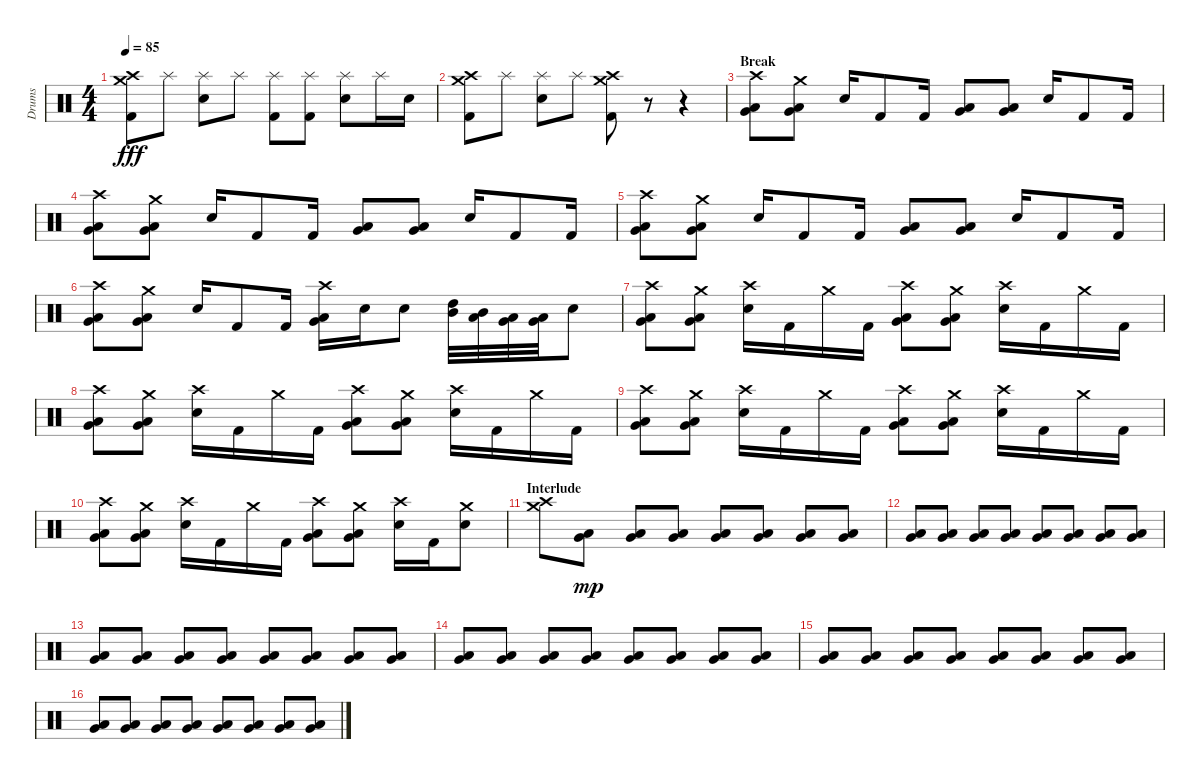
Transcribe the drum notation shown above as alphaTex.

\track ("Drums" "Drums") {instrument percussion}
\staff {score}
\articulation defaults
\ts (4 4)
\tempo 85
\clef neutral
\ks c
("Crash high (hit)" "Crash medium (hit)" "Kick (hit) 2").8{dy fff} "Splash (hit)".8 ("Splash (hit)" "Electric Snare (hit)").8 "Splash (hit)".8 ("Splash (hit)" "Kick (hit) 2").8 ("Splash (hit)" "Kick (hit) 2").8 ("Splash (hit)" "Electric Snare (hit)").8 "Splash (hit)".16 "Electric Snare (hit)".16 |
("Crash high (hit)" "Crash medium (hit)" "Kick (hit) 2").8 "Splash (hit)".8 ("Splash (hit)" "Electric Snare (hit)").8 "Splash (hit)".8 ("Crash high (hit)" "Crash medium (hit)" "Kick (hit) 2").8 r.8 r.4 |
\section ("" "Break")
("Crash high (hit)" "Very Low Tom (hit)" "Low Floor Tom (hit)").8 ("Crash medium (hit)" "Very Low Tom (hit)" "Low Floor Tom (hit)").8 "Electric Snare (hit)".16 "Kick (hit) 2".8 "Kick (hit) 2".16 ("Very Low Tom (hit)" "Low Floor Tom (hit)").8 ("Very Low Tom (hit)" "Low Floor Tom (hit)").8 "Electric Snare (hit)".16 "Kick (hit) 2".8 "Kick (hit) 2".16 |
("Crash high (hit)" "Very Low Tom (hit)" "Low Floor Tom (hit)").8 ("Crash medium (hit)" "Very Low Tom (hit)" "Low Floor Tom (hit)").8 "Electric Snare (hit)".16 "Kick (hit) 2".8 "Kick (hit) 2".16 ("Very Low Tom (hit)" "Low Floor Tom (hit)").8 ("Very Low Tom (hit)" "Low Floor Tom (hit)").8 "Electric Snare (hit)".16 "Kick (hit) 2".8 "Kick (hit) 2".16 |
("Crash high (hit)" "Very Low Tom (hit)" "Low Floor Tom (hit)").8 ("Crash medium (hit)" "Very Low Tom (hit)" "Low Floor Tom (hit)").8 "Electric Snare (hit)".16 "Kick (hit) 2".8 "Kick (hit) 2".16 ("Very Low Tom (hit)" "Low Floor Tom (hit)").8 ("Very Low Tom (hit)" "Low Floor Tom (hit)").8 "Electric Snare (hit)".16 "Kick (hit) 2".8 "Kick (hit) 2".16 |
("Crash high (hit)" "Very Low Tom (hit)" "Low Floor Tom (hit)").8 ("Crash medium (hit)" "Very Low Tom (hit)" "Low Floor Tom (hit)").8 "Electric Snare (hit)".16 "Kick (hit) 2".8 "Kick (hit) 2".16 ("Crash high (hit)" "Very Low Tom (hit)" "Low Floor Tom (hit)").16 "Electric Snare (hit)".16 "Electric Snare (hit)".8 ("High Tom (hit)" "Mid Tom (hit)").32 ("Mid Tom (hit)" "Low Tom (hit)").32 ("Low Tom (hit)" "Very Low Tom (hit)").32 ("Very Low Tom (hit)" "Low Floor Tom (hit)").32 "Electric Snare (hit)".8 |
("Crash high (hit)" "Very Low Tom (hit)" "Low Floor Tom (hit)").8 ("Crash medium (hit)" "Very Low Tom (hit)" "Low Floor Tom (hit)").8 ("Crash high (hit)" "Electric Snare (hit)").16 "Kick (hit) 2".16 "Crash medium (hit)".16 "Kick (hit) 2".16 ("Crash high (hit)" "Very Low Tom (hit)" "Low Floor Tom (hit)").8 ("Crash medium (hit)" "Very Low Tom (hit)" "Low Floor Tom (hit)").8 ("Crash high (hit)" "Electric Snare (hit)").16 "Kick (hit) 2".16 "Crash medium (hit)".16 "Kick (hit) 2".16 |
("Crash high (hit)" "Very Low Tom (hit)" "Low Floor Tom (hit)").8 ("Crash medium (hit)" "Very Low Tom (hit)" "Low Floor Tom (hit)").8 ("Crash high (hit)" "Electric Snare (hit)").16 "Kick (hit) 2".16 "Crash medium (hit)".16 "Kick (hit) 2".16 ("Crash high (hit)" "Very Low Tom (hit)" "Low Floor Tom (hit)").8 ("Crash medium (hit)" "Very Low Tom (hit)" "Low Floor Tom (hit)").8 ("Crash high (hit)" "Electric Snare (hit)").16 "Kick (hit) 2".16 "Crash medium (hit)".16 "Kick (hit) 2".16 |
("Crash high (hit)" "Very Low Tom (hit)" "Low Floor Tom (hit)").8 ("Crash medium (hit)" "Very Low Tom (hit)" "Low Floor Tom (hit)").8 ("Crash high (hit)" "Electric Snare (hit)").16 "Kick (hit) 2".16 "Crash medium (hit)".16 "Kick (hit) 2".16 ("Crash high (hit)" "Very Low Tom (hit)" "Low Floor Tom (hit)").8 ("Crash medium (hit)" "Very Low Tom (hit)" "Low Floor Tom (hit)").8 ("Crash high (hit)" "Electric Snare (hit)").16 "Kick (hit) 2".16 "Crash medium (hit)".16 "Kick (hit) 2".16 |
("Crash high (hit)" "Very Low Tom (hit)" "Low Floor Tom (hit)").8 ("Crash medium (hit)" "Very Low Tom (hit)" "Low Floor Tom (hit)").8 ("Crash high (hit)" "Electric Snare (hit)").16 "Kick (hit) 2".16 "Crash medium (hit)".16 "Kick (hit) 2".16 ("Crash high (hit)" "Very Low Tom (hit)" "Low Floor Tom (hit)").8 ("Crash medium (hit)" "Very Low Tom (hit)" "Low Floor Tom (hit)").8 ("Crash high (hit)" "Electric Snare (hit)").16 "Kick (hit) 2".16 ("Crash medium (hit)" "Electric Snare (hit)").8 |
\section ("" "Interlude")
("Crash high (hit)" "Crash medium (hit)").8 ("Very Low Tom (hit)" "Low Floor Tom (hit)").8{dy mp} ("Very Low Tom (hit)" "Low Floor Tom (hit)").8 ("Very Low Tom (hit)" "Low Floor Tom (hit)").8 ("Very Low Tom (hit)" "Low Floor Tom (hit)").8 ("Very Low Tom (hit)" "Low Floor Tom (hit)").8 ("Very Low Tom (hit)" "Low Floor Tom (hit)").8 ("Very Low Tom (hit)" "Low Floor Tom (hit)").8 |
("Very Low Tom (hit)" "Low Floor Tom (hit)").8 ("Very Low Tom (hit)" "Low Floor Tom (hit)").8 ("Very Low Tom (hit)" "Low Floor Tom (hit)").8 ("Very Low Tom (hit)" "Low Floor Tom (hit)").8 ("Very Low Tom (hit)" "Low Floor Tom (hit)").8 ("Very Low Tom (hit)" "Low Floor Tom (hit)").8 ("Very Low Tom (hit)" "Low Floor Tom (hit)").8 ("Very Low Tom (hit)" "Low Floor Tom (hit)").8 |
("Very Low Tom (hit)" "Low Floor Tom (hit)").8 ("Very Low Tom (hit)" "Low Floor Tom (hit)").8 ("Very Low Tom (hit)" "Low Floor Tom (hit)").8 ("Very Low Tom (hit)" "Low Floor Tom (hit)").8 ("Very Low Tom (hit)" "Low Floor Tom (hit)").8 ("Very Low Tom (hit)" "Low Floor Tom (hit)").8 ("Very Low Tom (hit)" "Low Floor Tom (hit)").8 ("Very Low Tom (hit)" "Low Floor Tom (hit)").8 |
("Very Low Tom (hit)" "Low Floor Tom (hit)").8 ("Very Low Tom (hit)" "Low Floor Tom (hit)").8 ("Very Low Tom (hit)" "Low Floor Tom (hit)").8 ("Very Low Tom (hit)" "Low Floor Tom (hit)").8 ("Very Low Tom (hit)" "Low Floor Tom (hit)").8 ("Very Low Tom (hit)" "Low Floor Tom (hit)").8 ("Very Low Tom (hit)" "Low Floor Tom (hit)").8 ("Very Low Tom (hit)" "Low Floor Tom (hit)").8 |
("Very Low Tom (hit)" "Low Floor Tom (hit)").8 ("Very Low Tom (hit)" "Low Floor Tom (hit)").8 ("Very Low Tom (hit)" "Low Floor Tom (hit)").8 ("Very Low Tom (hit)" "Low Floor Tom (hit)").8 ("Very Low Tom (hit)" "Low Floor Tom (hit)").8 ("Very Low Tom (hit)" "Low Floor Tom (hit)").8 ("Very Low Tom (hit)" "Low Floor Tom (hit)").8 ("Very Low Tom (hit)" "Low Floor Tom (hit)").8 |
("Very Low Tom (hit)" "Low Floor Tom (hit)").8 ("Very Low Tom (hit)" "Low Floor Tom (hit)").8 ("Very Low Tom (hit)" "Low Floor Tom (hit)").8 ("Very Low Tom (hit)" "Low Floor Tom (hit)").8 ("Very Low Tom (hit)" "Low Floor Tom (hit)").8 ("Very Low Tom (hit)" "Low Floor Tom (hit)").8 ("Very Low Tom (hit)" "Low Floor Tom (hit)").8 ("Very Low Tom (hit)" "Low Floor Tom (hit)").8
